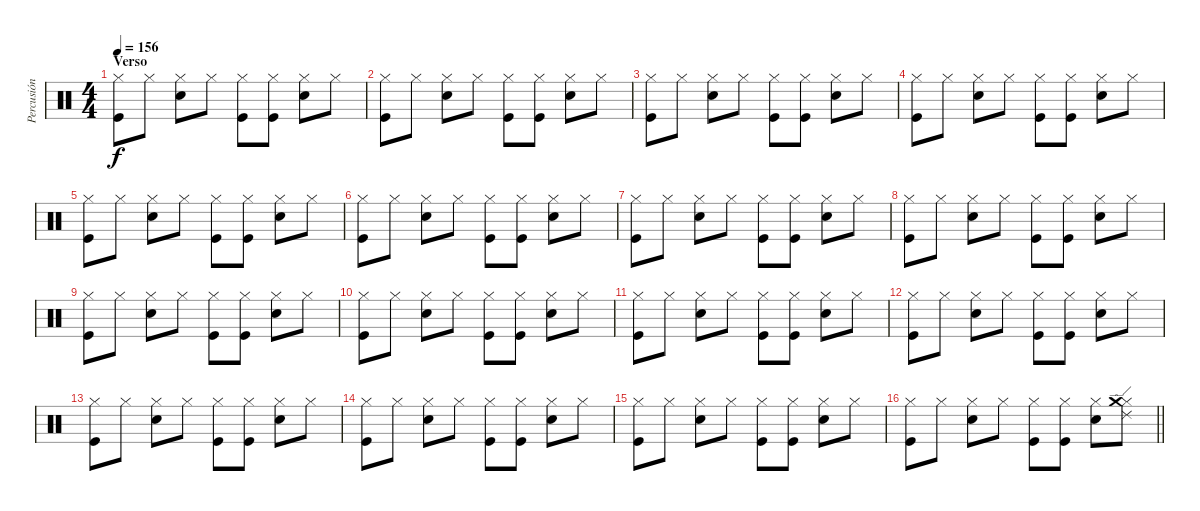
\track ("Percusión" "Percusión") {instrument percussion}
\staff {score}
\articulation defaults
\ts (4 4)
\section ("" "Verso")
\tempo 156
\clef neutral
\ks c
("Hi-Hat (closed)" "Kick (hit)").8{dy f} "Hi-Hat (closed)".8 ("Hi-Hat (closed)" "Electric Snare (hit)").8 "Hi-Hat (closed)".8 ("Hi-Hat (closed)" "Kick (hit)").8 ("Hi-Hat (closed)" "Kick (hit)").8 ("Hi-Hat (closed)" "Electric Snare (hit)").8 "Hi-Hat (closed)".8 |
("Hi-Hat (closed)" "Kick (hit)").8 "Hi-Hat (closed)".8 ("Hi-Hat (closed)" "Electric Snare (hit)").8 "Hi-Hat (closed)".8 ("Hi-Hat (closed)" "Kick (hit)").8 ("Hi-Hat (closed)" "Kick (hit)").8 ("Hi-Hat (closed)" "Electric Snare (hit)").8 "Hi-Hat (closed)".8 |
("Hi-Hat (closed)" "Kick (hit)").8 "Hi-Hat (closed)".8 ("Hi-Hat (closed)" "Electric Snare (hit)").8 "Hi-Hat (closed)".8 ("Hi-Hat (closed)" "Kick (hit)").8 ("Hi-Hat (closed)" "Kick (hit)").8 ("Hi-Hat (closed)" "Electric Snare (hit)").8 "Hi-Hat (closed)".8 |
("Hi-Hat (closed)" "Kick (hit)").8 "Hi-Hat (closed)".8 ("Hi-Hat (closed)" "Electric Snare (hit)").8 "Hi-Hat (closed)".8 ("Hi-Hat (closed)" "Kick (hit)").8 ("Hi-Hat (closed)" "Kick (hit)").8 ("Hi-Hat (closed)" "Electric Snare (hit)").8 "Hi-Hat (closed)".8 |
("Hi-Hat (closed)" "Kick (hit)").8 "Hi-Hat (closed)".8 ("Hi-Hat (closed)" "Electric Snare (hit)").8 "Hi-Hat (closed)".8 ("Hi-Hat (closed)" "Kick (hit)").8 ("Hi-Hat (closed)" "Kick (hit)").8 ("Hi-Hat (closed)" "Electric Snare (hit)").8 "Hi-Hat (closed)".8 |
("Hi-Hat (closed)" "Kick (hit)").8 "Hi-Hat (closed)".8 ("Hi-Hat (closed)" "Electric Snare (hit)").8 "Hi-Hat (closed)".8 ("Hi-Hat (closed)" "Kick (hit)").8 ("Hi-Hat (closed)" "Kick (hit)").8 ("Hi-Hat (closed)" "Electric Snare (hit)").8 "Hi-Hat (closed)".8 |
("Hi-Hat (closed)" "Kick (hit)").8 "Hi-Hat (closed)".8 ("Hi-Hat (closed)" "Electric Snare (hit)").8 "Hi-Hat (closed)".8 ("Hi-Hat (closed)" "Kick (hit)").8 ("Hi-Hat (closed)" "Kick (hit)").8 ("Hi-Hat (closed)" "Electric Snare (hit)").8 "Hi-Hat (closed)".8 |
("Hi-Hat (closed)" "Kick (hit)").8 "Hi-Hat (closed)".8 ("Hi-Hat (closed)" "Electric Snare (hit)").8 "Hi-Hat (closed)".8 ("Hi-Hat (closed)" "Kick (hit)").8 ("Hi-Hat (closed)" "Kick (hit)").8 ("Hi-Hat (closed)" "Electric Snare (hit)").8 "Hi-Hat (closed)".8 |
("Hi-Hat (closed)" "Kick (hit)").8 "Hi-Hat (closed)".8 ("Hi-Hat (closed)" "Electric Snare (hit)").8 "Hi-Hat (closed)".8 ("Hi-Hat (closed)" "Kick (hit)").8 ("Hi-Hat (closed)" "Kick (hit)").8 ("Hi-Hat (closed)" "Electric Snare (hit)").8 "Hi-Hat (closed)".8 |
("Hi-Hat (closed)" "Kick (hit)").8 "Hi-Hat (closed)".8 ("Hi-Hat (closed)" "Electric Snare (hit)").8 "Hi-Hat (closed)".8 ("Hi-Hat (closed)" "Kick (hit)").8 ("Hi-Hat (closed)" "Kick (hit)").8 ("Hi-Hat (closed)" "Electric Snare (hit)").8 "Hi-Hat (closed)".8 |
("Hi-Hat (closed)" "Kick (hit)").8 "Hi-Hat (closed)".8 ("Hi-Hat (closed)" "Electric Snare (hit)").8 "Hi-Hat (closed)".8 ("Hi-Hat (closed)" "Kick (hit)").8 ("Hi-Hat (closed)" "Kick (hit)").8 ("Hi-Hat (closed)" "Electric Snare (hit)").8 "Hi-Hat (closed)".8 |
("Hi-Hat (closed)" "Kick (hit)").8 "Hi-Hat (closed)".8 ("Hi-Hat (closed)" "Electric Snare (hit)").8 "Hi-Hat (closed)".8 ("Hi-Hat (closed)" "Kick (hit)").8 ("Hi-Hat (closed)" "Kick (hit)").8 ("Hi-Hat (closed)" "Electric Snare (hit)").8 "Hi-Hat (closed)".8 |
("Hi-Hat (closed)" "Kick (hit)").8 "Hi-Hat (closed)".8 ("Hi-Hat (closed)" "Electric Snare (hit)").8 "Hi-Hat (closed)".8 ("Hi-Hat (closed)" "Kick (hit)").8 ("Hi-Hat (closed)" "Kick (hit)").8 ("Hi-Hat (closed)" "Electric Snare (hit)").8 "Hi-Hat (closed)".8 |
("Hi-Hat (closed)" "Kick (hit)").8 "Hi-Hat (closed)".8 ("Hi-Hat (closed)" "Electric Snare (hit)").8 "Hi-Hat (closed)".8 ("Hi-Hat (closed)" "Kick (hit)").8 ("Hi-Hat (closed)" "Kick (hit)").8 ("Hi-Hat (closed)" "Electric Snare (hit)").8 "Hi-Hat (closed)".8 |
("Hi-Hat (closed)" "Kick (hit)").8 "Hi-Hat (closed)".8 ("Hi-Hat (closed)" "Electric Snare (hit)").8 "Hi-Hat (closed)".8 ("Hi-Hat (closed)" "Kick (hit)").8 ("Hi-Hat (closed)" "Kick (hit)").8 ("Hi-Hat (closed)" "Electric Snare (hit)").8 "Hi-Hat (closed)".8 |
\barLineRight lightlight
("Hi-Hat (closed)" "Kick (hit)").8 "Hi-Hat (closed)".8 ("Hi-Hat (closed)" "Electric Snare (hit)").8 "Hi-Hat (closed)".8 ("Hi-Hat (closed)" "Kick (hit)").8 ("Hi-Hat (closed)" "Kick (hit)").8 ("Hi-Hat (closed)" "Electric Snare (hit)").8 ("Hi-Hat (closed)" "Ride (edge) 2" "Crash medium (hit)").8
